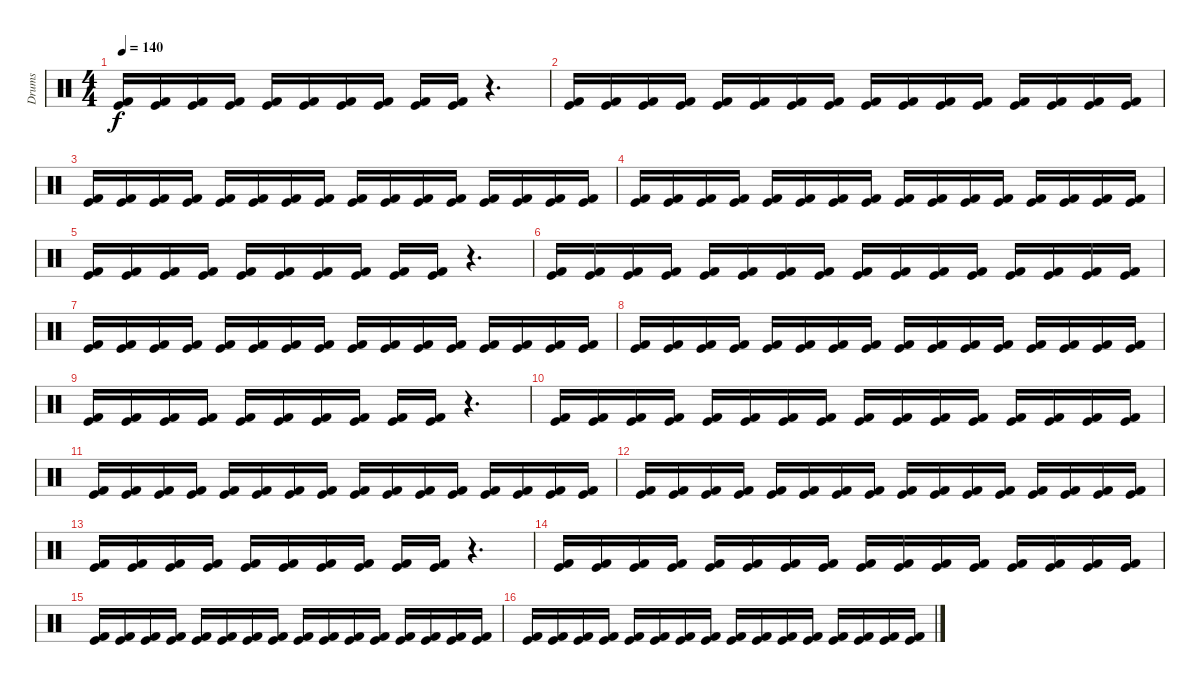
\track ("Drums" "Drums") {instrument percussion}
\staff {score}
\articulation defaults
\ts (4 4)
\tempo 140
\clef neutral
\ks c
("Kick (hit) 2" "Kick (hit)").16{dy f} ("Kick (hit) 2" "Kick (hit)").16 ("Kick (hit) 2" "Kick (hit)").16 ("Kick (hit) 2" "Kick (hit)").16 ("Kick (hit) 2" "Kick (hit)").16 ("Kick (hit) 2" "Kick (hit)").16 ("Kick (hit) 2" "Kick (hit)").16 ("Kick (hit) 2" "Kick (hit)").16 ("Kick (hit) 2" "Kick (hit)").16 ("Kick (hit) 2" "Kick (hit)").16 r.4{d} |
("Kick (hit) 2" "Kick (hit)").16 ("Kick (hit) 2" "Kick (hit)").16 ("Kick (hit) 2" "Kick (hit)").16 ("Kick (hit) 2" "Kick (hit)").16 ("Kick (hit) 2" "Kick (hit)").16 ("Kick (hit) 2" "Kick (hit)").16 ("Kick (hit) 2" "Kick (hit)").16 ("Kick (hit) 2" "Kick (hit)").16 ("Kick (hit) 2" "Kick (hit)").16 ("Kick (hit) 2" "Kick (hit)").16 ("Kick (hit) 2" "Kick (hit)").16 ("Kick (hit) 2" "Kick (hit)").16 ("Kick (hit) 2" "Kick (hit)").16 ("Kick (hit) 2" "Kick (hit)").16 ("Kick (hit) 2" "Kick (hit)").16 ("Kick (hit) 2" "Kick (hit)").16 |
("Kick (hit) 2" "Kick (hit)").16 ("Kick (hit) 2" "Kick (hit)").16 ("Kick (hit) 2" "Kick (hit)").16 ("Kick (hit) 2" "Kick (hit)").16 ("Kick (hit) 2" "Kick (hit)").16 ("Kick (hit) 2" "Kick (hit)").16 ("Kick (hit) 2" "Kick (hit)").16 ("Kick (hit) 2" "Kick (hit)").16 ("Kick (hit) 2" "Kick (hit)").16 ("Kick (hit) 2" "Kick (hit)").16 ("Kick (hit) 2" "Kick (hit)").16 ("Kick (hit) 2" "Kick (hit)").16 ("Kick (hit) 2" "Kick (hit)").16 ("Kick (hit) 2" "Kick (hit)").16 ("Kick (hit) 2" "Kick (hit)").16 ("Kick (hit) 2" "Kick (hit)").16 |
("Kick (hit) 2" "Kick (hit)").16 ("Kick (hit) 2" "Kick (hit)").16 ("Kick (hit) 2" "Kick (hit)").16 ("Kick (hit) 2" "Kick (hit)").16 ("Kick (hit) 2" "Kick (hit)").16 ("Kick (hit) 2" "Kick (hit)").16 ("Kick (hit) 2" "Kick (hit)").16 ("Kick (hit) 2" "Kick (hit)").16 ("Kick (hit) 2" "Kick (hit)").16 ("Kick (hit) 2" "Kick (hit)").16 ("Kick (hit) 2" "Kick (hit)").16 ("Kick (hit) 2" "Kick (hit)").16 ("Kick (hit) 2" "Kick (hit)").16 ("Kick (hit) 2" "Kick (hit)").16 ("Kick (hit) 2" "Kick (hit)").16 ("Kick (hit) 2" "Kick (hit)").16 |
("Kick (hit) 2" "Kick (hit)").16 ("Kick (hit) 2" "Kick (hit)").16 ("Kick (hit) 2" "Kick (hit)").16 ("Kick (hit) 2" "Kick (hit)").16 ("Kick (hit) 2" "Kick (hit)").16 ("Kick (hit) 2" "Kick (hit)").16 ("Kick (hit) 2" "Kick (hit)").16 ("Kick (hit) 2" "Kick (hit)").16 ("Kick (hit) 2" "Kick (hit)").16 ("Kick (hit) 2" "Kick (hit)").16 r.4{d} |
("Kick (hit) 2" "Kick (hit)").16 ("Kick (hit) 2" "Kick (hit)").16 ("Kick (hit) 2" "Kick (hit)").16 ("Kick (hit) 2" "Kick (hit)").16 ("Kick (hit) 2" "Kick (hit)").16 ("Kick (hit) 2" "Kick (hit)").16 ("Kick (hit) 2" "Kick (hit)").16 ("Kick (hit) 2" "Kick (hit)").16 ("Kick (hit) 2" "Kick (hit)").16 ("Kick (hit) 2" "Kick (hit)").16 ("Kick (hit) 2" "Kick (hit)").16 ("Kick (hit) 2" "Kick (hit)").16 ("Kick (hit) 2" "Kick (hit)").16 ("Kick (hit) 2" "Kick (hit)").16 ("Kick (hit) 2" "Kick (hit)").16 ("Kick (hit) 2" "Kick (hit)").16 |
("Kick (hit) 2" "Kick (hit)").16 ("Kick (hit) 2" "Kick (hit)").16 ("Kick (hit) 2" "Kick (hit)").16 ("Kick (hit) 2" "Kick (hit)").16 ("Kick (hit) 2" "Kick (hit)").16 ("Kick (hit) 2" "Kick (hit)").16 ("Kick (hit) 2" "Kick (hit)").16 ("Kick (hit) 2" "Kick (hit)").16 ("Kick (hit) 2" "Kick (hit)").16 ("Kick (hit) 2" "Kick (hit)").16 ("Kick (hit) 2" "Kick (hit)").16 ("Kick (hit) 2" "Kick (hit)").16 ("Kick (hit) 2" "Kick (hit)").16 ("Kick (hit) 2" "Kick (hit)").16 ("Kick (hit) 2" "Kick (hit)").16 ("Kick (hit) 2" "Kick (hit)").16 |
("Kick (hit) 2" "Kick (hit)").16 ("Kick (hit) 2" "Kick (hit)").16 ("Kick (hit) 2" "Kick (hit)").16 ("Kick (hit) 2" "Kick (hit)").16 ("Kick (hit) 2" "Kick (hit)").16 ("Kick (hit) 2" "Kick (hit)").16 ("Kick (hit) 2" "Kick (hit)").16 ("Kick (hit) 2" "Kick (hit)").16 ("Kick (hit) 2" "Kick (hit)").16 ("Kick (hit) 2" "Kick (hit)").16 ("Kick (hit) 2" "Kick (hit)").16 ("Kick (hit) 2" "Kick (hit)").16 ("Kick (hit) 2" "Kick (hit)").16 ("Kick (hit) 2" "Kick (hit)").16 ("Kick (hit) 2" "Kick (hit)").16 ("Kick (hit) 2" "Kick (hit)").16 |
("Kick (hit) 2" "Kick (hit)").16 ("Kick (hit) 2" "Kick (hit)").16 ("Kick (hit) 2" "Kick (hit)").16 ("Kick (hit) 2" "Kick (hit)").16 ("Kick (hit) 2" "Kick (hit)").16 ("Kick (hit) 2" "Kick (hit)").16 ("Kick (hit) 2" "Kick (hit)").16 ("Kick (hit) 2" "Kick (hit)").16 ("Kick (hit) 2" "Kick (hit)").16 ("Kick (hit) 2" "Kick (hit)").16 r.4{d} |
("Kick (hit) 2" "Kick (hit)").16 ("Kick (hit) 2" "Kick (hit)").16 ("Kick (hit) 2" "Kick (hit)").16 ("Kick (hit) 2" "Kick (hit)").16 ("Kick (hit) 2" "Kick (hit)").16 ("Kick (hit) 2" "Kick (hit)").16 ("Kick (hit) 2" "Kick (hit)").16 ("Kick (hit) 2" "Kick (hit)").16 ("Kick (hit) 2" "Kick (hit)").16 ("Kick (hit) 2" "Kick (hit)").16 ("Kick (hit) 2" "Kick (hit)").16 ("Kick (hit) 2" "Kick (hit)").16 ("Kick (hit) 2" "Kick (hit)").16 ("Kick (hit) 2" "Kick (hit)").16 ("Kick (hit) 2" "Kick (hit)").16 ("Kick (hit) 2" "Kick (hit)").16 |
("Kick (hit) 2" "Kick (hit)").16 ("Kick (hit) 2" "Kick (hit)").16 ("Kick (hit) 2" "Kick (hit)").16 ("Kick (hit) 2" "Kick (hit)").16 ("Kick (hit) 2" "Kick (hit)").16 ("Kick (hit) 2" "Kick (hit)").16 ("Kick (hit) 2" "Kick (hit)").16 ("Kick (hit) 2" "Kick (hit)").16 ("Kick (hit) 2" "Kick (hit)").16 ("Kick (hit) 2" "Kick (hit)").16 ("Kick (hit) 2" "Kick (hit)").16 ("Kick (hit) 2" "Kick (hit)").16 ("Kick (hit) 2" "Kick (hit)").16 ("Kick (hit) 2" "Kick (hit)").16 ("Kick (hit) 2" "Kick (hit)").16 ("Kick (hit) 2" "Kick (hit)").16 |
("Kick (hit) 2" "Kick (hit)").16 ("Kick (hit) 2" "Kick (hit)").16 ("Kick (hit) 2" "Kick (hit)").16 ("Kick (hit) 2" "Kick (hit)").16 ("Kick (hit) 2" "Kick (hit)").16 ("Kick (hit) 2" "Kick (hit)").16 ("Kick (hit) 2" "Kick (hit)").16 ("Kick (hit) 2" "Kick (hit)").16 ("Kick (hit) 2" "Kick (hit)").16 ("Kick (hit) 2" "Kick (hit)").16 ("Kick (hit) 2" "Kick (hit)").16 ("Kick (hit) 2" "Kick (hit)").16 ("Kick (hit) 2" "Kick (hit)").16 ("Kick (hit) 2" "Kick (hit)").16 ("Kick (hit) 2" "Kick (hit)").16 ("Kick (hit) 2" "Kick (hit)").16 |
("Kick (hit) 2" "Kick (hit)").16 ("Kick (hit) 2" "Kick (hit)").16 ("Kick (hit) 2" "Kick (hit)").16 ("Kick (hit) 2" "Kick (hit)").16 ("Kick (hit) 2" "Kick (hit)").16 ("Kick (hit) 2" "Kick (hit)").16 ("Kick (hit) 2" "Kick (hit)").16 ("Kick (hit) 2" "Kick (hit)").16 ("Kick (hit) 2" "Kick (hit)").16 ("Kick (hit) 2" "Kick (hit)").16 r.4{d} |
("Kick (hit) 2" "Kick (hit)").16 ("Kick (hit) 2" "Kick (hit)").16 ("Kick (hit) 2" "Kick (hit)").16 ("Kick (hit) 2" "Kick (hit)").16 ("Kick (hit) 2" "Kick (hit)").16 ("Kick (hit) 2" "Kick (hit)").16 ("Kick (hit) 2" "Kick (hit)").16 ("Kick (hit) 2" "Kick (hit)").16 ("Kick (hit) 2" "Kick (hit)").16 ("Kick (hit) 2" "Kick (hit)").16 ("Kick (hit) 2" "Kick (hit)").16 ("Kick (hit) 2" "Kick (hit)").16 ("Kick (hit) 2" "Kick (hit)").16 ("Kick (hit) 2" "Kick (hit)").16 ("Kick (hit) 2" "Kick (hit)").16 ("Kick (hit) 2" "Kick (hit)").16 |
("Kick (hit) 2" "Kick (hit)").16 ("Kick (hit) 2" "Kick (hit)").16 ("Kick (hit) 2" "Kick (hit)").16 ("Kick (hit) 2" "Kick (hit)").16 ("Kick (hit) 2" "Kick (hit)").16 ("Kick (hit) 2" "Kick (hit)").16 ("Kick (hit) 2" "Kick (hit)").16 ("Kick (hit) 2" "Kick (hit)").16 ("Kick (hit) 2" "Kick (hit)").16 ("Kick (hit) 2" "Kick (hit)").16 ("Kick (hit) 2" "Kick (hit)").16 ("Kick (hit) 2" "Kick (hit)").16 ("Kick (hit) 2" "Kick (hit)").16 ("Kick (hit) 2" "Kick (hit)").16 ("Kick (hit) 2" "Kick (hit)").16 ("Kick (hit) 2" "Kick (hit)").16 |
("Kick (hit) 2" "Kick (hit)").16 ("Kick (hit) 2" "Kick (hit)").16 ("Kick (hit) 2" "Kick (hit)").16 ("Kick (hit) 2" "Kick (hit)").16 ("Kick (hit) 2" "Kick (hit)").16 ("Kick (hit) 2" "Kick (hit)").16 ("Kick (hit) 2" "Kick (hit)").16 ("Kick (hit) 2" "Kick (hit)").16 ("Kick (hit) 2" "Kick (hit)").16 ("Kick (hit) 2" "Kick (hit)").16 ("Kick (hit) 2" "Kick (hit)").16 ("Kick (hit) 2" "Kick (hit)").16 ("Kick (hit) 2" "Kick (hit)").16 ("Kick (hit) 2" "Kick (hit)").16 ("Kick (hit) 2" "Kick (hit)").16 ("Kick (hit) 2" "Kick (hit)").16
